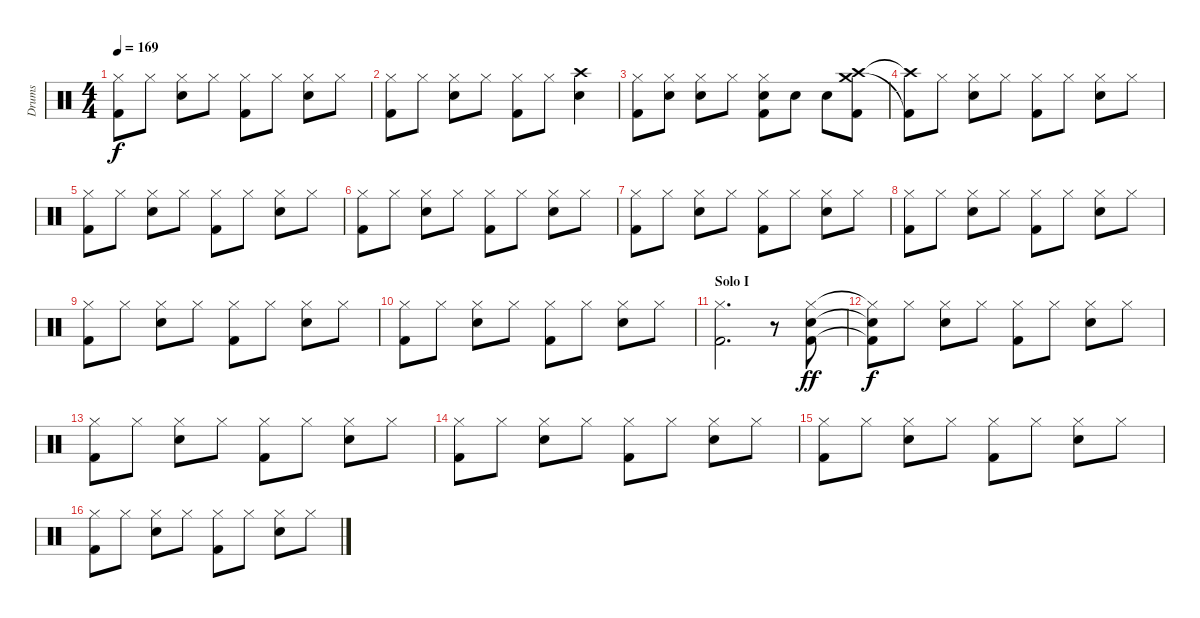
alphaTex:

\track ("Drums" "Drums") {instrument percussion}
\staff {score}
\articulation defaults
\ts (4 4)
\tempo 169
\clef neutral
\ks c
("Hi-Hat (closed)" "Kick (hit) 2").8{dy f} "Hi-Hat (closed)".8 ("Hi-Hat (closed)" "Snare (hit) 2").8 "Hi-Hat (closed)".8 ("Hi-Hat (closed)" "Kick (hit) 2").8 "Hi-Hat (closed)".8 ("Hi-Hat (closed)" "Snare (hit) 2").8 "Hi-Hat (closed)".8 |
("Hi-Hat (closed)" "Kick (hit) 2").8 "Hi-Hat (closed)".8 ("Hi-Hat (closed)" "Snare (hit) 2").8 "Hi-Hat (closed)".8 ("Hi-Hat (closed)" "Kick (hit) 2").8 "Hi-Hat (closed)".8 ("Crash high (hit)" "Snare (hit) 2").4 |
("Hi-Hat (closed)" "Kick (hit) 2").8 ("Hi-Hat (closed)" "Snare (hit) 2").8 ("Hi-Hat (closed)" "Snare (hit) 2").8 "Hi-Hat (closed)".8 ("Hi-Hat (closed)" "Snare (hit) 2" "Kick (hit) 2").8 "Snare (hit) 2".8 "Snare (hit) 2".8 ("Crash high (hit)" "Crash medium (hit)" "Kick (hit) 2").8 |
("Crash high (hit)"{t} "Kick (hit) 2"{t}).8 "Hi-Hat (closed)".8 ("Hi-Hat (closed)" "Snare (hit) 2").8 "Hi-Hat (closed)".8 ("Hi-Hat (closed)" "Kick (hit) 2").8 "Hi-Hat (closed)".8 ("Hi-Hat (closed)" "Snare (hit) 2").8 "Hi-Hat (closed)".8 |
("Hi-Hat (closed)" "Kick (hit) 2").8 "Hi-Hat (closed)".8 ("Hi-Hat (closed)" "Snare (hit) 2").8 "Hi-Hat (closed)".8 ("Hi-Hat (closed)" "Kick (hit) 2").8 "Hi-Hat (closed)".8 ("Hi-Hat (closed)" "Snare (hit) 2").8 "Hi-Hat (closed)".8 |
("Hi-Hat (closed)" "Kick (hit) 2").8 "Hi-Hat (closed)".8 ("Hi-Hat (closed)" "Snare (hit) 2").8 "Hi-Hat (closed)".8 ("Hi-Hat (closed)" "Kick (hit) 2").8 "Hi-Hat (closed)".8 ("Hi-Hat (closed)" "Snare (hit) 2").8 "Hi-Hat (closed)".8 |
("Hi-Hat (closed)" "Kick (hit) 2").8 "Hi-Hat (closed)".8 ("Hi-Hat (closed)" "Snare (hit) 2").8 "Hi-Hat (closed)".8 ("Hi-Hat (closed)" "Kick (hit) 2").8 "Hi-Hat (closed)".8 ("Hi-Hat (closed)" "Snare (hit) 2").8 "Hi-Hat (closed)".8 |
("Hi-Hat (closed)" "Kick (hit) 2").8 "Hi-Hat (closed)".8 ("Hi-Hat (closed)" "Snare (hit) 2").8 "Hi-Hat (closed)".8 ("Hi-Hat (closed)" "Kick (hit) 2").8 "Hi-Hat (closed)".8 ("Hi-Hat (closed)" "Snare (hit) 2").8 "Hi-Hat (closed)".8 |
("Hi-Hat (closed)" "Kick (hit) 2").8 "Hi-Hat (closed)".8 ("Hi-Hat (closed)" "Snare (hit) 2").8 "Hi-Hat (closed)".8 ("Hi-Hat (closed)" "Kick (hit) 2").8 "Hi-Hat (closed)".8 ("Hi-Hat (closed)" "Snare (hit) 2").8 "Hi-Hat (closed)".8 |
("Hi-Hat (closed)" "Kick (hit) 2").8 "Hi-Hat (closed)".8 ("Hi-Hat (closed)" "Snare (hit) 2").8 "Hi-Hat (closed)".8 ("Hi-Hat (closed)" "Kick (hit) 2").8 "Hi-Hat (closed)".8 ("Hi-Hat (closed)" "Snare (hit) 2").8 "Hi-Hat (closed)".8 |
\section ("" "Solo I")
("Hi-Hat (closed)" "Kick (hit) 2").2{d} r.8 ("Hi-Hat (closed)" "Electric Snare (hit)" "Kick (hit) 2").8{dy ff} |
("Hi-Hat (closed)"{t} "Electric Snare (hit)"{t} "Kick (hit) 2"{t}).8{dy f} "Hi-Hat (closed)".8 ("Hi-Hat (closed)" "Snare (hit) 2").8 "Hi-Hat (closed)".8 ("Hi-Hat (closed)" "Kick (hit) 2").8 "Hi-Hat (closed)".8 ("Hi-Hat (closed)" "Snare (hit) 2").8 "Hi-Hat (closed)".8 |
("Hi-Hat (closed)" "Kick (hit) 2").8 "Hi-Hat (closed)".8 ("Hi-Hat (closed)" "Snare (hit) 2").8 "Hi-Hat (closed)".8 ("Hi-Hat (closed)" "Kick (hit) 2").8 "Hi-Hat (closed)".8 ("Hi-Hat (closed)" "Snare (hit) 2").8 "Hi-Hat (closed)".8 |
("Hi-Hat (closed)" "Kick (hit) 2").8 "Hi-Hat (closed)".8 ("Hi-Hat (closed)" "Snare (hit) 2").8 "Hi-Hat (closed)".8 ("Hi-Hat (closed)" "Kick (hit) 2").8 "Hi-Hat (closed)".8 ("Hi-Hat (closed)" "Snare (hit) 2").8 "Hi-Hat (closed)".8 |
("Hi-Hat (closed)" "Kick (hit) 2").8 "Hi-Hat (closed)".8 ("Hi-Hat (closed)" "Snare (hit) 2").8 "Hi-Hat (closed)".8 ("Hi-Hat (closed)" "Kick (hit) 2").8 "Hi-Hat (closed)".8 ("Hi-Hat (closed)" "Snare (hit) 2").8 "Hi-Hat (closed)".8 |
("Hi-Hat (closed)" "Kick (hit) 2").8 "Hi-Hat (closed)".8 ("Hi-Hat (closed)" "Snare (hit) 2").8 "Hi-Hat (closed)".8 ("Hi-Hat (closed)" "Kick (hit) 2").8 "Hi-Hat (closed)".8 ("Hi-Hat (closed)" "Snare (hit) 2").8 "Hi-Hat (closed)".8
